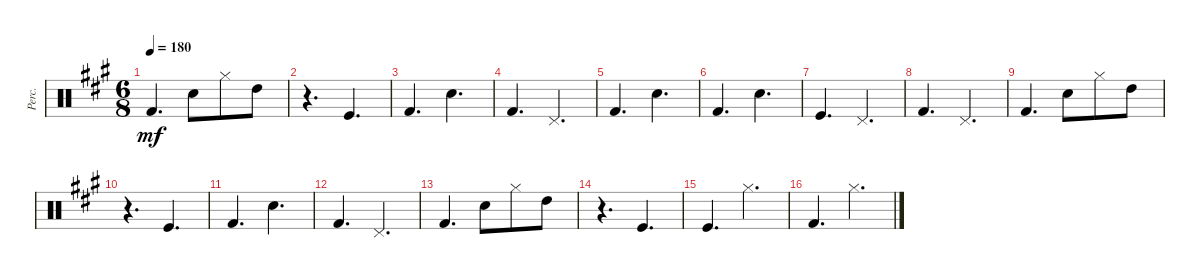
\defaultSystemsLayout 4
\bracketExtendMode groupsimilarinstruments
\otherSystemsTrackNameOrientation horizontal
\track ("Percussions" "Perc.") {instrument percussion}
\staff {score}
\articulation defaults
\ts (6 8)
\tempo 180
\clef neutral
\ks f#minor "Kick (hit) 2"{acc forcenatural}.4{d dy mf beam Up} "Snare (hit) 2"{acc forcenatural}.8{beam Down} "Hi-Hat (closed)"{acc forcenatural}.8{beam Down} "High Tom (hit)"{acc forcenatural}.8{beam Down}
|
r.4{d beam Down} "Kick (hit)"{acc forcenatural}.4{d beam Up} |
"Kick (hit) 2"{acc forcenatural}.4{d beam Up} "Snare (hit) 2"{acc forcenatural}.4{d beam Down} |
"Kick (hit) 2"{acc forcenatural}.4{d beam Up} "Pedal Hi-Hat (hit)"{acc forcenatural}.4{d beam Up} |
"Kick (hit) 2"{acc forcenatural}.4{d beam Up} "Snare (hit) 2"{acc forcenatural}.4{d beam Down} |
"Kick (hit) 2"{acc forcenatural}.4{d beam Up} "Snare (hit) 2"{acc forcenatural}.4{d beam Down} |
"Kick (hit)"{acc forcenatural}.4{d beam Up} "Pedal Hi-Hat (hit)"{acc forcenatural}.4{d beam Up} |
"Kick (hit) 2"{acc forcenatural}.4{d beam Up} "Pedal Hi-Hat (hit)"{acc forcenatural}.4{d beam Up} |
"Kick (hit) 2"{acc forcenatural}.4{d beam Up} "Snare (hit) 2"{acc forcenatural}.8{beam Down} "Hi-Hat (closed)"{acc forcenatural}.8{beam Down} "High Tom (hit)"{acc forcenatural}.8{beam Down} |
r.4{d beam Down} "Kick (hit)"{acc forcenatural}.4{d beam Up} |
"Kick (hit) 2"{acc forcenatural}.4{d beam Up} "Snare (hit) 2"{acc forcenatural}.4{d beam Down} |
"Kick (hit) 2"{acc forcenatural}.4{d beam Up} "Pedal Hi-Hat (hit)"{acc forcenatural}.4{d beam Up} |
"Kick (hit) 2"{acc forcenatural}.4{d beam Up} "Snare (hit) 2"{acc forcenatural}.8{beam Down} "Hi-Hat (closed)"{acc forcenatural}.8{beam Down} "High Tom (hit)"{acc forcenatural}.8{beam Down} |
r.4{d beam Down} "Kick (hit)"{acc forcenatural}.4{d beam Up} |
"Kick (hit)"{acc forcenatural}.4{d beam Up} "Hi-Hat (closed)"{acc forcenatural}.4{d beam Down} |
"Kick (hit) 2"{acc forcenatural}.4{d beam Up} "Hi-Hat (closed)"{acc forcenatural}.4{d beam Down}
